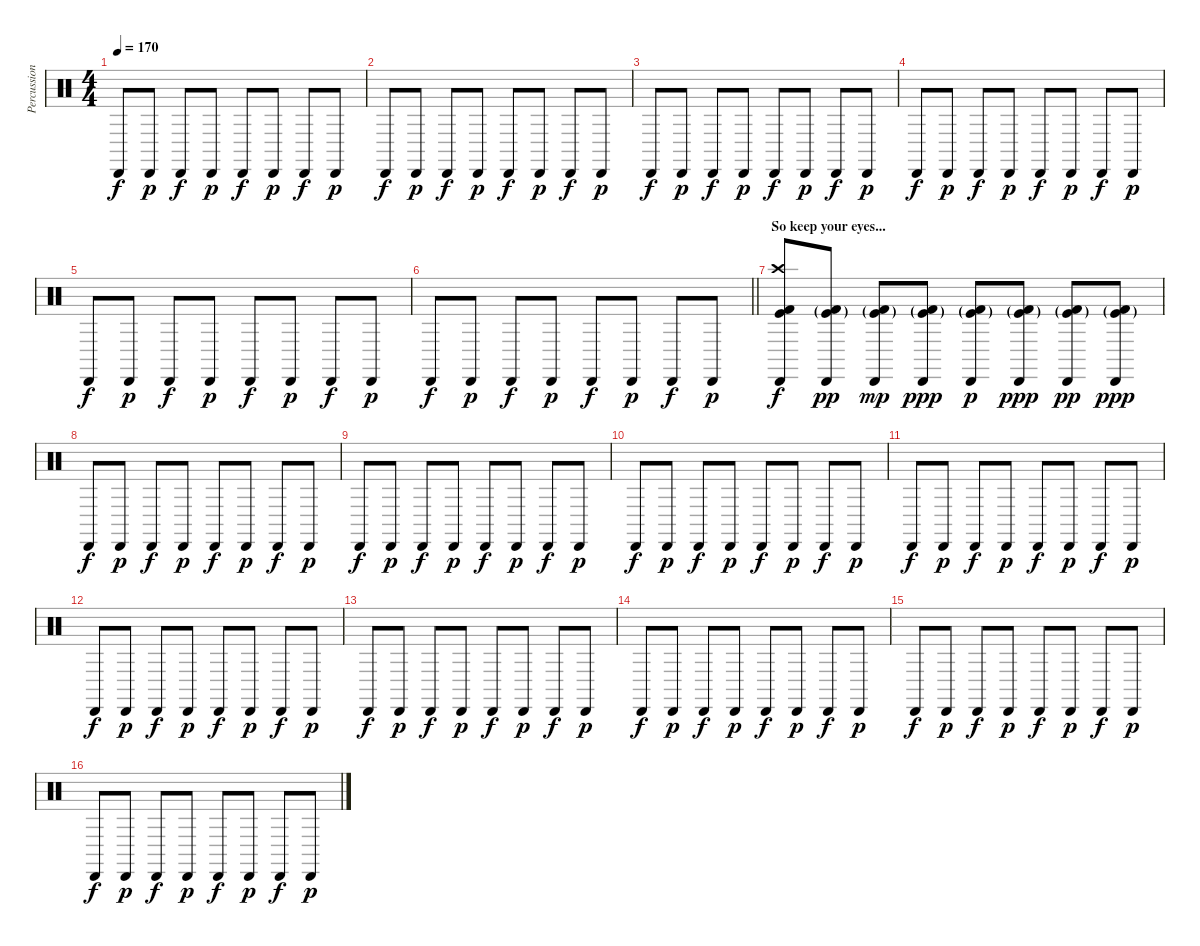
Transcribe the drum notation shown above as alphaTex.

\track ("Percussion" "Percussion") {instrument percussion}
\staff {score}
\articulation defaults
\ts (4 4)
\tempo 170
\clef neutral
\ks c "Cabasa (hit)".8{dy f} "Cabasa (hit)".8{dy p} "Cabasa (hit)".8{dy f} "Cabasa (hit)".8{dy p} "Cabasa (hit)".8{dy f} "Cabasa (hit)".8{dy p} "Cabasa (hit)".8{dy f} "Cabasa (hit)".8{dy p}
|
"Cabasa (hit)".8{dy f} "Cabasa (hit)".8{dy p} "Cabasa (hit)".8{dy f} "Cabasa (hit)".8{dy p} "Cabasa (hit)".8{dy f} "Cabasa (hit)".8{dy p} "Cabasa (hit)".8{dy f} "Cabasa (hit)".8{dy p} |
"Cabasa (hit)".8{dy f} "Cabasa (hit)".8{dy p} "Cabasa (hit)".8{dy f} "Cabasa (hit)".8{dy p} "Cabasa (hit)".8{dy f} "Cabasa (hit)".8{dy p} "Cabasa (hit)".8{dy f} "Cabasa (hit)".8{dy p} |
"Cabasa (hit)".8{dy f} "Cabasa (hit)".8{dy p} "Cabasa (hit)".8{dy f} "Cabasa (hit)".8{dy p} "Cabasa (hit)".8{dy f} "Cabasa (hit)".8{dy p} "Cabasa (hit)".8{dy f} "Cabasa (hit)".8{dy p} |
"Cabasa (hit)".8{dy f} "Cabasa (hit)".8{dy p} "Cabasa (hit)".8{dy f} "Cabasa (hit)".8{dy p} "Cabasa (hit)".8{dy f} "Cabasa (hit)".8{dy p} "Cabasa (hit)".8{dy f} "Cabasa (hit)".8{dy p} |
\barLineRight lightlight "Cabasa (hit)".8{dy f} "Cabasa (hit)".8{dy p} "Cabasa (hit)".8{dy f} "Cabasa (hit)".8{dy p} "Cabasa (hit)".8{dy f} "Cabasa (hit)".8{dy p} "Cabasa (hit)".8{dy f} "Cabasa (hit)".8{dy p}
|
\section ("" "So keep your eyes...")
("Cabasa (hit)" "Kick (hit)" "Kick (hit) 2" "Crash high (hit)").8{dy f} ("Cabasa (hit)" "Kick (hit)"{g} "Kick (hit) 2"{g}).8{dy pp} ("Cabasa (hit)" "Kick (hit)"{g} "Kick (hit) 2"{g}).8{dy mp} ("Cabasa (hit)" "Kick (hit)"{g} "Kick (hit) 2"{g}).8{dy ppp} ("Cabasa (hit)" "Kick (hit)"{g} "Kick (hit) 2"{g}).8{dy p} ("Cabasa (hit)" "Kick (hit)"{g} "Kick (hit) 2"{g}).8{dy ppp} ("Cabasa (hit)" "Kick (hit)"{g} "Kick (hit) 2"{g}).8{dy pp} ("Cabasa (hit)" "Kick (hit)"{g} "Kick (hit) 2"{g}).8{dy ppp} |
"Cabasa (hit)".8{dy f} "Cabasa (hit)".8{dy p} "Cabasa (hit)".8{dy f} "Cabasa (hit)".8{dy p} "Cabasa (hit)".8{dy f} "Cabasa (hit)".8{dy p} "Cabasa (hit)".8{dy f} "Cabasa (hit)".8{dy p} |
"Cabasa (hit)".8{dy f} "Cabasa (hit)".8{dy p} "Cabasa (hit)".8{dy f} "Cabasa (hit)".8{dy p} "Cabasa (hit)".8{dy f} "Cabasa (hit)".8{dy p} "Cabasa (hit)".8{dy f} "Cabasa (hit)".8{dy p} |
"Cabasa (hit)".8{dy f} "Cabasa (hit)".8{dy p} "Cabasa (hit)".8{dy f} "Cabasa (hit)".8{dy p} "Cabasa (hit)".8{dy f} "Cabasa (hit)".8{dy p} "Cabasa (hit)".8{dy f} "Cabasa (hit)".8{dy p} |
"Cabasa (hit)".8{dy f} "Cabasa (hit)".8{dy p} "Cabasa (hit)".8{dy f} "Cabasa (hit)".8{dy p} "Cabasa (hit)".8{dy f} "Cabasa (hit)".8{dy p} "Cabasa (hit)".8{dy f} "Cabasa (hit)".8{dy p} |
"Cabasa (hit)".8{dy f} "Cabasa (hit)".8{dy p} "Cabasa (hit)".8{dy f} "Cabasa (hit)".8{dy p} "Cabasa (hit)".8{dy f} "Cabasa (hit)".8{dy p} "Cabasa (hit)".8{dy f} "Cabasa (hit)".8{dy p} |
"Cabasa (hit)".8{dy f} "Cabasa (hit)".8{dy p} "Cabasa (hit)".8{dy f} "Cabasa (hit)".8{dy p} "Cabasa (hit)".8{dy f} "Cabasa (hit)".8{dy p} "Cabasa (hit)".8{dy f} "Cabasa (hit)".8{dy p} |
"Cabasa (hit)".8{dy f} "Cabasa (hit)".8{dy p} "Cabasa (hit)".8{dy f} "Cabasa (hit)".8{dy p} "Cabasa (hit)".8{dy f} "Cabasa (hit)".8{dy p} "Cabasa (hit)".8{dy f} "Cabasa (hit)".8{dy p} |
"Cabasa (hit)".8{dy f} "Cabasa (hit)".8{dy p} "Cabasa (hit)".8{dy f} "Cabasa (hit)".8{dy p} "Cabasa (hit)".8{dy f} "Cabasa (hit)".8{dy p} "Cabasa (hit)".8{dy f} "Cabasa (hit)".8{dy p} |
"Cabasa (hit)".8{dy f} "Cabasa (hit)".8{dy p} "Cabasa (hit)".8{dy f} "Cabasa (hit)".8{dy p} "Cabasa (hit)".8{dy f} "Cabasa (hit)".8{dy p} "Cabasa (hit)".8{dy f} "Cabasa (hit)".8{dy p}
